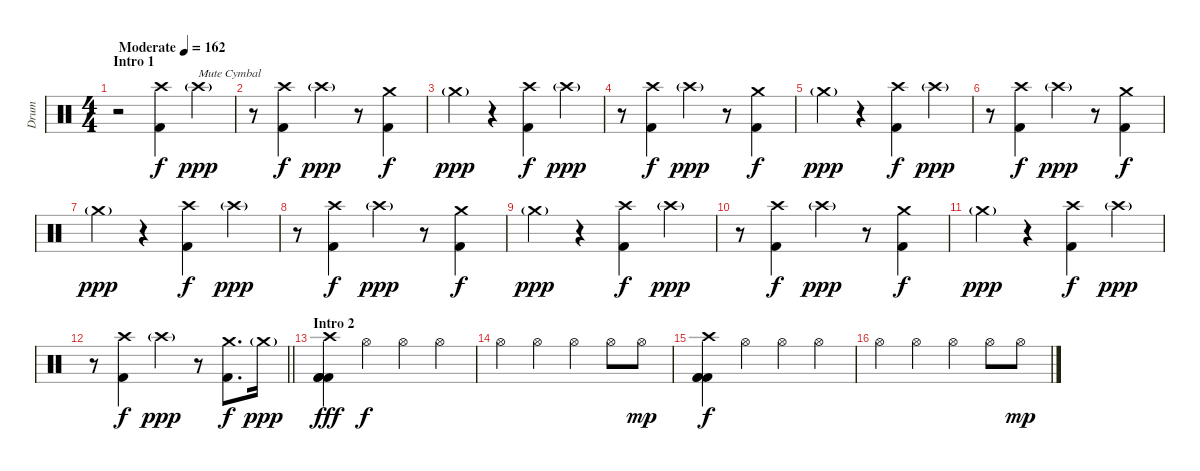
\track ("Drum" "Drum") {instrument percussion}
\staff {score}
\articulation defaults
\ts (4 4)
\section ("" "Intro 1")
\tempo (162 "Moderate")
\clef neutral
\ks c
r.2{dy f volume 5} ("Crash high (hit)" "Kick (hit) 2").4 "Crash high (hit)"{g}.4{txt "Mute Cymbal" dy ppp} |
r.8{volume 8} ("Crash high (hit)" "Kick (hit) 2").4{dy f} "Crash high (hit)"{g}.4{dy ppp} r.8 ("Crash medium (hit)" "Kick (hit) 2").4{dy f} |
"Crash medium (hit)"{g}.4{dy ppp} r.4 ("Crash high (hit)" "Kick (hit) 2").4{dy f} "Crash high (hit)"{g}.4{dy ppp} |
r.8 ("Crash high (hit)" "Kick (hit) 2").4{dy f} "Crash high (hit)"{g}.4{dy ppp} r.8 ("Crash medium (hit)" "Kick (hit) 2").4{dy f} |
"Crash medium (hit)"{g}.4{dy ppp} r.4 ("Crash high (hit)" "Kick (hit) 2").4{dy f} "Crash high (hit)"{g}.4{dy ppp} |
r.8 ("Crash high (hit)" "Kick (hit) 2").4{dy f} "Crash high (hit)"{g}.4{dy ppp} r.8 ("Crash medium (hit)" "Kick (hit) 2").4{dy f} |
"Crash medium (hit)"{g}.4{dy ppp} r.4 ("Crash high (hit)" "Kick (hit) 2").4{dy f} "Crash high (hit)"{g}.4{dy ppp} |
r.8 ("Crash high (hit)" "Kick (hit) 2").4{dy f} "Crash high (hit)"{g}.4{dy ppp} r.8 ("Crash medium (hit)" "Kick (hit) 2").4{dy f} |
"Crash medium (hit)"{g}.4{dy ppp} r.4 ("Crash high (hit)" "Kick (hit) 2").4{dy f} "Crash high (hit)"{g}.4{dy ppp} |
r.8 ("Crash high (hit)" "Kick (hit) 2").4{dy f} "Crash high (hit)"{g}.4{dy ppp} r.8 ("Crash medium (hit)" "Kick (hit) 2").4{dy f} |
"Crash medium (hit)"{g}.4{dy ppp} r.4 ("Crash high (hit)" "Kick (hit) 2").4{dy f} "Crash high (hit)"{g}.4{dy ppp} |
\barLineRight lightlight
r.8 ("Crash high (hit)" "Kick (hit) 2").4{dy f} "Crash high (hit)"{g}.4{dy ppp} r.8 ("Crash medium (hit)" "Kick (hit) 2").8{d dy f} "Crash medium (hit)"{g}.16{dy ppp} |
\section ("" "Intro 2")
("Crash high (hit)" "Kick (hit) 2" "Kick (hit) 2" "Kick (hit) 2").4{dy fff volume 11} "Hi-Hat (open)".4{dy f} "Hi-Hat (open)".4 "Hi-Hat (open)".4 |
"Hi-Hat (open)".4 "Hi-Hat (open)".4 "Hi-Hat (open)".4 "Hi-Hat (open)".8 "Hi-Hat (open)".8{dy mp} |
("Crash high (hit)" "Kick (hit) 2" "Kick (hit) 2" "Kick (hit) 2").4{dy f} "Hi-Hat (open)".4 "Hi-Hat (open)".4 "Hi-Hat (open)".4 |
"Hi-Hat (open)".4 "Hi-Hat (open)".4 "Hi-Hat (open)".4 "Hi-Hat (open)".8 "Hi-Hat (open)".8{dy mp}
